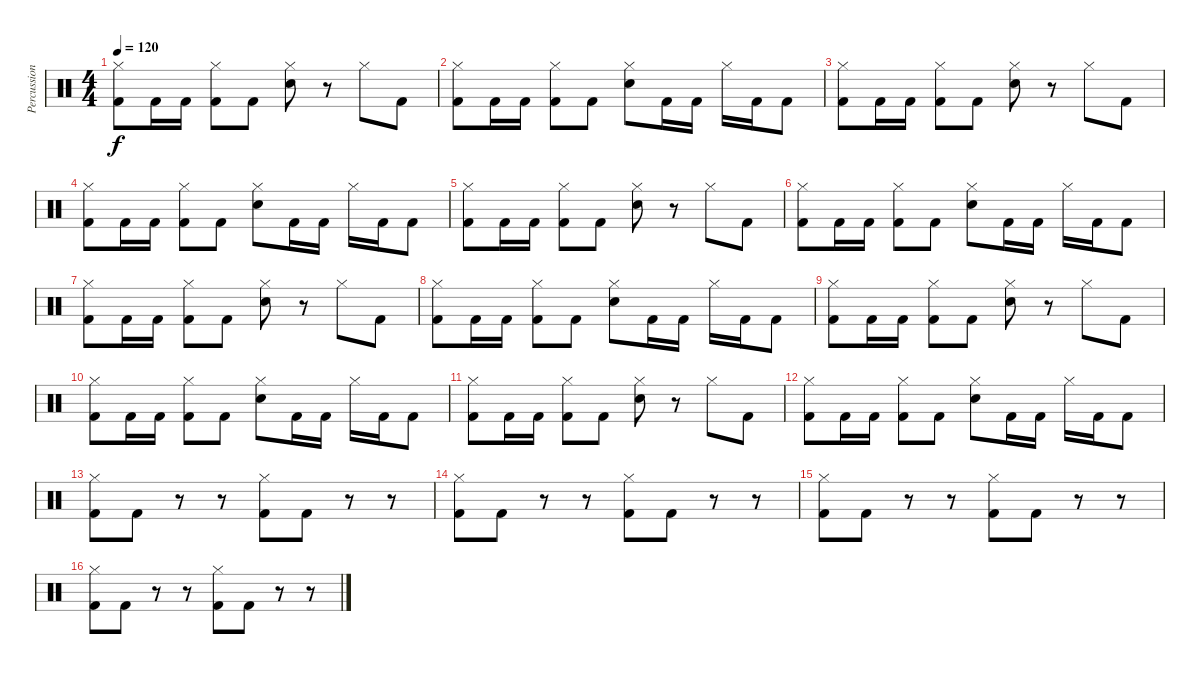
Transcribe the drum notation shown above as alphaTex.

\track ("Percussions" "Percussion") {instrument percussion}
\staff {score}
\articulation defaults
\ts (4 4)
\tempo 120
\clef neutral
\ks c
("Hi-Hat (closed)" "Kick (hit) 2").8{dy f} "Kick (hit) 2".16 "Kick (hit) 2".16 ("Hi-Hat (closed)" "Kick (hit) 2").8 "Kick (hit) 2".8 ("Hi-Hat (closed)" "Snare (hit) 2").8 r.8 "Hi-Hat (closed)".8 "Kick (hit) 2".8 |
("Hi-Hat (closed)" "Kick (hit) 2").8 "Kick (hit) 2".16 "Kick (hit) 2".16 ("Hi-Hat (closed)" "Kick (hit) 2").8 "Kick (hit) 2".8 ("Hi-Hat (closed)" "Snare (hit) 2").8 "Kick (hit) 2".16 "Kick (hit) 2".16 "Hi-Hat (closed)".16 "Kick (hit) 2".16 "Kick (hit) 2".8 |
("Hi-Hat (closed)" "Kick (hit) 2").8 "Kick (hit) 2".16 "Kick (hit) 2".16 ("Hi-Hat (closed)" "Kick (hit) 2").8 "Kick (hit) 2".8 ("Hi-Hat (closed)" "Snare (hit) 2").8 r.8 "Hi-Hat (closed)".8 "Kick (hit) 2".8 |
("Hi-Hat (closed)" "Kick (hit) 2").8 "Kick (hit) 2".16 "Kick (hit) 2".16 ("Hi-Hat (closed)" "Kick (hit) 2").8 "Kick (hit) 2".8 ("Hi-Hat (closed)" "Snare (hit) 2").8 "Kick (hit) 2".16 "Kick (hit) 2".16 "Hi-Hat (closed)".16 "Kick (hit) 2".16 "Kick (hit) 2".8 |
("Hi-Hat (closed)" "Kick (hit) 2").8 "Kick (hit) 2".16 "Kick (hit) 2".16 ("Hi-Hat (closed)" "Kick (hit) 2").8 "Kick (hit) 2".8 ("Hi-Hat (closed)" "Snare (hit) 2").8 r.8 "Hi-Hat (closed)".8 "Kick (hit) 2".8 |
("Hi-Hat (closed)" "Kick (hit) 2").8 "Kick (hit) 2".16 "Kick (hit) 2".16 ("Hi-Hat (closed)" "Kick (hit) 2").8 "Kick (hit) 2".8 ("Hi-Hat (closed)" "Snare (hit) 2").8 "Kick (hit) 2".16 "Kick (hit) 2".16 "Hi-Hat (closed)".16 "Kick (hit) 2".16 "Kick (hit) 2".8 |
("Hi-Hat (closed)" "Kick (hit) 2").8 "Kick (hit) 2".16 "Kick (hit) 2".16 ("Hi-Hat (closed)" "Kick (hit) 2").8 "Kick (hit) 2".8 ("Hi-Hat (closed)" "Snare (hit) 2").8 r.8 "Hi-Hat (closed)".8 "Kick (hit) 2".8 |
("Hi-Hat (closed)" "Kick (hit) 2").8 "Kick (hit) 2".16 "Kick (hit) 2".16 ("Hi-Hat (closed)" "Kick (hit) 2").8 "Kick (hit) 2".8 ("Hi-Hat (closed)" "Snare (hit) 2").8 "Kick (hit) 2".16 "Kick (hit) 2".16 "Hi-Hat (closed)".16 "Kick (hit) 2".16 "Kick (hit) 2".8 |
("Hi-Hat (closed)" "Kick (hit) 2").8 "Kick (hit) 2".16 "Kick (hit) 2".16 ("Hi-Hat (closed)" "Kick (hit) 2").8 "Kick (hit) 2".8 ("Hi-Hat (closed)" "Snare (hit) 2").8 r.8 "Hi-Hat (closed)".8 "Kick (hit) 2".8 |
("Hi-Hat (closed)" "Kick (hit) 2").8 "Kick (hit) 2".16 "Kick (hit) 2".16 ("Hi-Hat (closed)" "Kick (hit) 2").8 "Kick (hit) 2".8 ("Hi-Hat (closed)" "Snare (hit) 2").8 "Kick (hit) 2".16 "Kick (hit) 2".16 "Hi-Hat (closed)".16 "Kick (hit) 2".16 "Kick (hit) 2".8 |
("Hi-Hat (closed)" "Kick (hit) 2").8 "Kick (hit) 2".16 "Kick (hit) 2".16 ("Hi-Hat (closed)" "Kick (hit) 2").8 "Kick (hit) 2".8 ("Hi-Hat (closed)" "Snare (hit) 2").8 r.8 "Hi-Hat (closed)".8 "Kick (hit) 2".8 |
("Hi-Hat (closed)" "Kick (hit) 2").8 "Kick (hit) 2".16 "Kick (hit) 2".16 ("Hi-Hat (closed)" "Kick (hit) 2").8 "Kick (hit) 2".8 ("Hi-Hat (closed)" "Snare (hit) 2").8 "Kick (hit) 2".16 "Kick (hit) 2".16 "Hi-Hat (closed)".16 "Kick (hit) 2".16 "Kick (hit) 2".8 |
("Hi-Hat (closed)" "Kick (hit) 2").8 "Kick (hit) 2".8 r.8 r.8 ("Hi-Hat (closed)" "Kick (hit) 2").8 "Kick (hit) 2".8 r.8 r.8 |
("Hi-Hat (closed)" "Kick (hit) 2").8 "Kick (hit) 2".8 r.8 r.8 ("Hi-Hat (closed)" "Kick (hit) 2").8 "Kick (hit) 2".8 r.8 r.8 |
("Hi-Hat (closed)" "Kick (hit) 2").8 "Kick (hit) 2".8 r.8 r.8 ("Hi-Hat (closed)" "Kick (hit) 2").8 "Kick (hit) 2".8 r.8 r.8 |
("Hi-Hat (closed)" "Kick (hit) 2").8 "Kick (hit) 2".8 r.8 r.8 ("Hi-Hat (closed)" "Kick (hit) 2").8 "Kick (hit) 2".8 r.8 r.8
